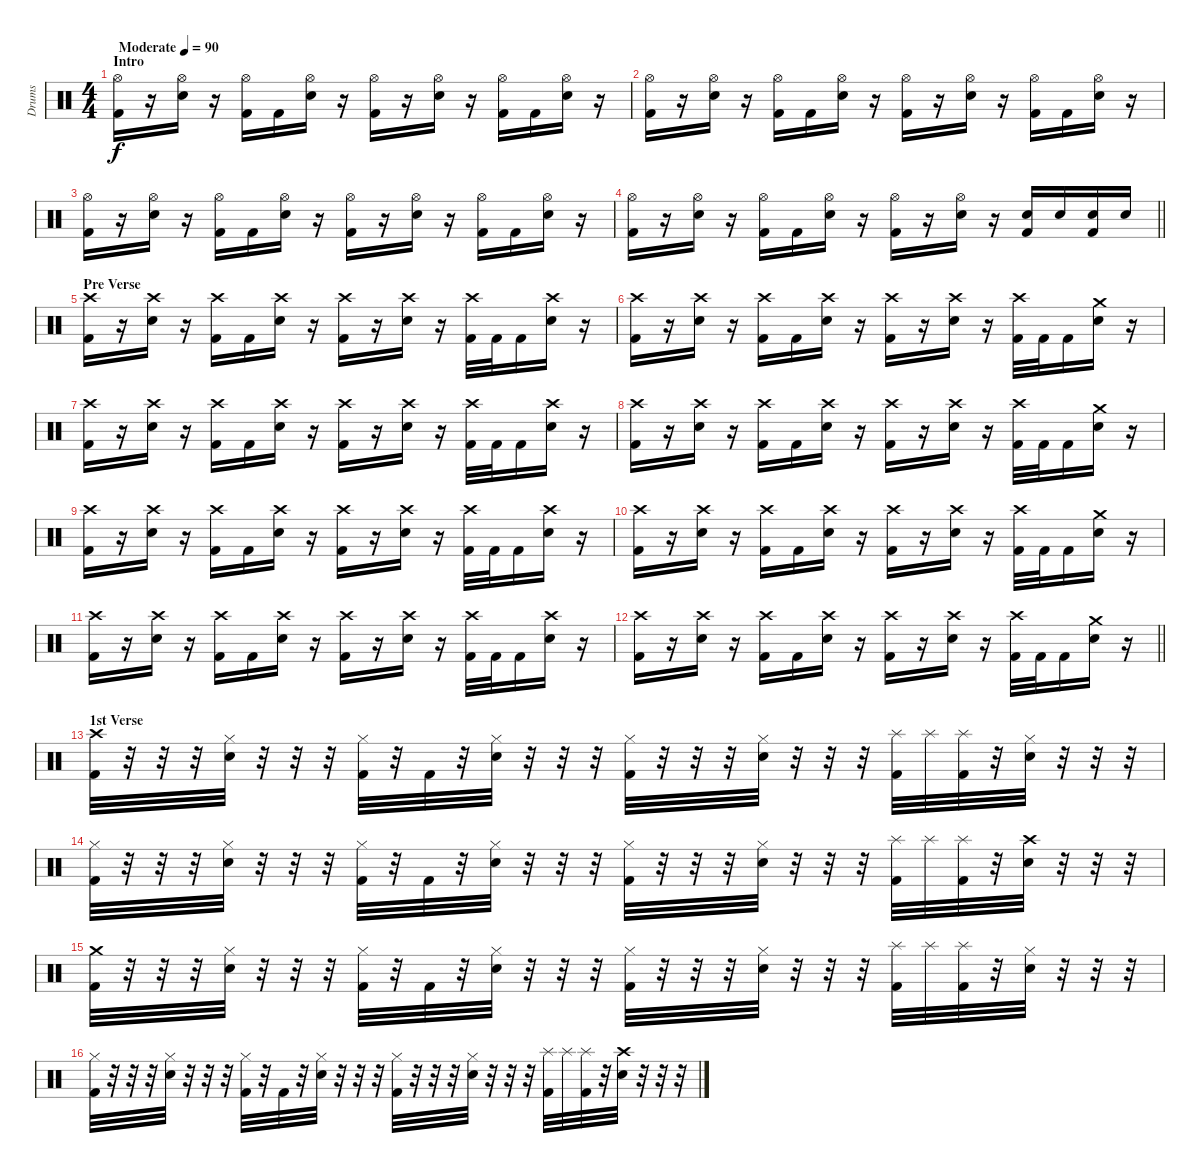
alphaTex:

\track ("Drums" "Drums") {instrument percussion}
\staff {score}
\articulation defaults
\ts (4 4)
\section ("" "Intro")
\tempo (90 "Moderate")
\clef neutral
\ks c
("Hi-Hat (open)" "Kick (hit) 2").16{dy f} r.16{volume 12} ("Hi-Hat (open)" "Electric Snare (hit)").16 r.16 ("Hi-Hat (open)" "Kick (hit) 2").16 "Kick (hit) 2".16 ("Hi-Hat (open)" "Electric Snare (hit)").16 r.16 ("Hi-Hat (open)" "Kick (hit) 2").16 r.16 ("Hi-Hat (open)" "Electric Snare (hit)").16 r.16 ("Hi-Hat (open)" "Kick (hit) 2").16 "Kick (hit) 2".16 ("Hi-Hat (open)" "Electric Snare (hit)").16 r.16 |
("Hi-Hat (open)" "Kick (hit) 2").16 r.16 ("Hi-Hat (open)" "Electric Snare (hit)").16 r.16 ("Hi-Hat (open)" "Kick (hit) 2").16 "Kick (hit) 2".16 ("Hi-Hat (open)" "Electric Snare (hit)").16 r.16 ("Hi-Hat (open)" "Kick (hit) 2").16 r.16 ("Hi-Hat (open)" "Electric Snare (hit)").16 r.16 ("Hi-Hat (open)" "Kick (hit) 2").16 "Kick (hit) 2".16 ("Hi-Hat (open)" "Electric Snare (hit)").16 r.16 |
("Hi-Hat (open)" "Kick (hit) 2").16 r.16 ("Hi-Hat (open)" "Electric Snare (hit)").16 r.16 ("Hi-Hat (open)" "Kick (hit) 2").16 "Kick (hit) 2".16 ("Hi-Hat (open)" "Electric Snare (hit)").16 r.16 ("Hi-Hat (open)" "Kick (hit) 2").16 r.16 ("Hi-Hat (open)" "Electric Snare (hit)").16 r.16 ("Hi-Hat (open)" "Kick (hit) 2").16 "Kick (hit) 2".16 ("Hi-Hat (open)" "Electric Snare (hit)").16 r.16 |
\barLineRight lightlight
("Hi-Hat (open)" "Kick (hit) 2").16 r.16 ("Hi-Hat (open)" "Electric Snare (hit)").16 r.16 ("Hi-Hat (open)" "Kick (hit) 2").16 "Kick (hit) 2".16 ("Hi-Hat (open)" "Electric Snare (hit)").16 r.16 ("Hi-Hat (open)" "Kick (hit) 2").16 r.16 ("Hi-Hat (open)" "Electric Snare (hit)").16 r.16 ("Electric Snare (hit)" "Kick (hit) 2").16 "Electric Snare (hit)".16 ("Electric Snare (hit)" "Kick (hit) 2").16 "Electric Snare (hit)".16 |
\section ("" "Pre Verse")
("Crash high (hit)" "Kick (hit) 2").16 r.16 ("Crash high (hit)" "Electric Snare (hit)").16 r.16 ("Crash high (hit)" "Kick (hit) 2").16 "Kick (hit) 2".16 ("Crash high (hit)" "Electric Snare (hit)").16 r.16 ("Crash high (hit)" "Kick (hit) 2").16 r.16 ("Crash high (hit)" "Electric Snare (hit)").16 r.16 ("Crash high (hit)" "Kick (hit) 2").32 "Kick (hit) 2".32 "Kick (hit) 2".16 ("Crash high (hit)" "Electric Snare (hit)").16 r.16 |
("Crash high (hit)" "Kick (hit) 2").16 r.16 ("Crash high (hit)" "Electric Snare (hit)").16 r.16 ("Crash high (hit)" "Kick (hit) 2").16 "Kick (hit) 2".16 ("Crash high (hit)" "Electric Snare (hit)").16 r.16 ("Crash high (hit)" "Kick (hit) 2").16 r.16 ("Crash high (hit)" "Electric Snare (hit)").16 r.16 ("Crash high (hit)" "Kick (hit) 2").32 "Kick (hit) 2".32 "Kick (hit) 2".16 ("Crash medium (hit)" "Electric Snare (hit)").16 r.16 |
("Crash high (hit)" "Kick (hit) 2").16 r.16 ("Crash high (hit)" "Electric Snare (hit)").16 r.16 ("Crash high (hit)" "Kick (hit) 2").16 "Kick (hit) 2".16 ("Crash high (hit)" "Electric Snare (hit)").16 r.16 ("Crash high (hit)" "Kick (hit) 2").16 r.16 ("Crash high (hit)" "Electric Snare (hit)").16 r.16 ("Crash high (hit)" "Kick (hit) 2").32 "Kick (hit) 2".32 "Kick (hit) 2".16 ("Crash high (hit)" "Electric Snare (hit)").16 r.16 |
("Crash high (hit)" "Kick (hit) 2").16 r.16 ("Crash high (hit)" "Electric Snare (hit)").16 r.16 ("Crash high (hit)" "Kick (hit) 2").16 "Kick (hit) 2".16 ("Crash high (hit)" "Electric Snare (hit)").16 r.16 ("Crash high (hit)" "Kick (hit) 2").16 r.16 ("Crash high (hit)" "Electric Snare (hit)").16 r.16 ("Crash high (hit)" "Kick (hit) 2").32 "Kick (hit) 2".32 "Kick (hit) 2".16 ("Crash medium (hit)" "Electric Snare (hit)").16 r.16 |
("Crash high (hit)" "Kick (hit) 2").16 r.16 ("Crash high (hit)" "Electric Snare (hit)").16 r.16 ("Crash high (hit)" "Kick (hit) 2").16 "Kick (hit) 2".16 ("Crash high (hit)" "Electric Snare (hit)").16 r.16 ("Crash high (hit)" "Kick (hit) 2").16 r.16 ("Crash high (hit)" "Electric Snare (hit)").16 r.16 ("Crash high (hit)" "Kick (hit) 2").32 "Kick (hit) 2".32 "Kick (hit) 2".16 ("Crash high (hit)" "Electric Snare (hit)").16 r.16 |
("Crash high (hit)" "Kick (hit) 2").16 r.16 ("Crash high (hit)" "Electric Snare (hit)").16 r.16 ("Crash high (hit)" "Kick (hit) 2").16 "Kick (hit) 2".16 ("Crash high (hit)" "Electric Snare (hit)").16 r.16 ("Crash high (hit)" "Kick (hit) 2").16 r.16 ("Crash high (hit)" "Electric Snare (hit)").16 r.16 ("Crash high (hit)" "Kick (hit) 2").32 "Kick (hit) 2".32 "Kick (hit) 2".16 ("Crash medium (hit)" "Electric Snare (hit)").16 r.16 |
("Crash high (hit)" "Kick (hit) 2").16 r.16 ("Crash high (hit)" "Electric Snare (hit)").16 r.16 ("Crash high (hit)" "Kick (hit) 2").16 "Kick (hit) 2".16 ("Crash high (hit)" "Electric Snare (hit)").16 r.16 ("Crash high (hit)" "Kick (hit) 2").16 r.16 ("Crash high (hit)" "Electric Snare (hit)").16 r.16 ("Crash high (hit)" "Kick (hit) 2").32 "Kick (hit) 2".32 "Kick (hit) 2".16 ("Crash high (hit)" "Electric Snare (hit)").16 r.16 |
\barLineRight lightlight
("Crash high (hit)" "Kick (hit) 2").16 r.16 ("Crash high (hit)" "Electric Snare (hit)").16 r.16 ("Crash high (hit)" "Kick (hit) 2").16 "Kick (hit) 2".16 ("Crash high (hit)" "Electric Snare (hit)").16 r.16 ("Crash high (hit)" "Kick (hit) 2").16 r.16 ("Crash high (hit)" "Electric Snare (hit)").16 r.16 ("Crash high (hit)" "Kick (hit) 2").32 "Kick (hit) 2".32 "Kick (hit) 2".16 ("Crash medium (hit)" "Electric Snare (hit)").16 r.16 |
\section ("" "1st Verse")
("Crash high (hit)" "Kick (hit) 2").32 r.32 r.32 r.32 ("Hi-Hat (closed)" "Electric Snare (hit)").32 r.32 r.32 r.32 ("Hi-Hat (closed)" "Kick (hit) 2").32 r.32 "Kick (hit) 2".32 r.32 ("Hi-Hat (closed)" "Electric Snare (hit)").32 r.32 r.32 r.32 ("Hi-Hat (closed)" "Kick (hit) 2").32 r.32 r.32 r.32 ("Hi-Hat (closed)" "Electric Snare (hit)").32 r.32 r.32 r.32 ("Splash (hit)" "Kick (hit) 2").32 "Splash (hit)".32 ("Splash (hit)" "Kick (hit) 2").32 r.32 ("Hi-Hat (closed)" "Electric Snare (hit)").32 r.32 r.32 r.32 |
("Hi-Hat (closed)" "Kick (hit) 2").32 r.32 r.32 r.32 ("Hi-Hat (closed)" "Electric Snare (hit)").32 r.32 r.32 r.32 ("Hi-Hat (closed)" "Kick (hit) 2").32 r.32 "Kick (hit) 2".32 r.32 ("Hi-Hat (closed)" "Electric Snare (hit)").32 r.32 r.32 r.32 ("Hi-Hat (closed)" "Kick (hit) 2").32 r.32 r.32 r.32 ("Hi-Hat (closed)" "Electric Snare (hit)").32 r.32 r.32 r.32 ("Splash (hit)" "Kick (hit) 2").32 "Splash (hit)".32 ("Splash (hit)" "Kick (hit) 2").32 r.32 ("Crash high (hit)" "Electric Snare (hit)").32 r.32 r.32 r.32 |
("Crash medium (hit)" "Kick (hit) 2").32 r.32 r.32 r.32 ("Hi-Hat (closed)" "Electric Snare (hit)").32 r.32 r.32 r.32 ("Hi-Hat (closed)" "Kick (hit) 2").32 r.32 "Kick (hit) 2".32 r.32 ("Hi-Hat (closed)" "Electric Snare (hit)").32 r.32 r.32 r.32 ("Hi-Hat (closed)" "Kick (hit) 2").32 r.32 r.32 r.32 ("Hi-Hat (closed)" "Electric Snare (hit)").32 r.32 r.32 r.32 ("Splash (hit)" "Kick (hit) 2").32 "Splash (hit)".32 ("Splash (hit)" "Kick (hit) 2").32 r.32 ("Hi-Hat (closed)" "Electric Snare (hit)").32 r.32 r.32 r.32 |
("Hi-Hat (closed)" "Kick (hit) 2").32 r.32 r.32 r.32 ("Hi-Hat (closed)" "Electric Snare (hit)").32 r.32 r.32 r.32 ("Hi-Hat (closed)" "Kick (hit) 2").32 r.32 "Kick (hit) 2".32 r.32 ("Hi-Hat (closed)" "Electric Snare (hit)").32 r.32 r.32 r.32 ("Hi-Hat (closed)" "Kick (hit) 2").32 r.32 r.32 r.32 ("Hi-Hat (closed)" "Electric Snare (hit)").32 r.32 r.32 r.32 ("Splash (hit)" "Kick (hit) 2").32 "Splash (hit)".32 ("Splash (hit)" "Kick (hit) 2").32 r.32 ("Crash high (hit)" "Electric Snare (hit)").32 r.32 r.32 r.32
